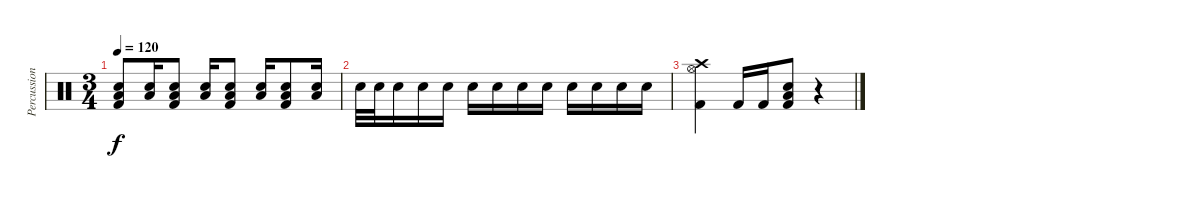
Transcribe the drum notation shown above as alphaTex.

\track ("Percussion" "Percussion") {instrument percussion}
\staff {score}
\articulation defaults
\ts (3 4)
\tempo 120
\clef neutral
\ks c
("Low Tom (hit)" "Snare (hit) 2" "Kick (hit) 2").8{dy f} ("Low Tom (hit)" "Snare (hit) 2").16 ("Low Tom (hit)" "Snare (hit) 2" "Kick (hit) 2").8 ("Low Tom (hit)" "Snare (hit) 2").16 ("Low Tom (hit)" "Snare (hit) 2" "Kick (hit) 2").8 ("Low Tom (hit)" "Snare (hit) 2").16 ("Low Tom (hit)" "Snare (hit) 2" "Kick (hit) 2").8 ("Low Tom (hit)" "Snare (hit) 2").16 |
"Snare (hit) 2".32 "Snare (hit) 2".32 "Snare (hit) 2".16 "Snare (hit) 2".16 "Snare (hit) 2".16 "Snare (hit) 2".16 "Snare (hit) 2".16 "Snare (hit) 2".16 "Snare (hit) 2".16 "Snare (hit) 2".16 "Snare (hit) 2".16 "Snare (hit) 2".16 "Snare (hit) 2".16 |
("Crash high (hit)" "Hi-Hat (open)" "Kick (hit) 2").4 "Kick (hit) 2".16 "Kick (hit) 2".16 ("Snare (hit) 2" "Low Tom (hit)" "Kick (hit) 2").8 r.4
